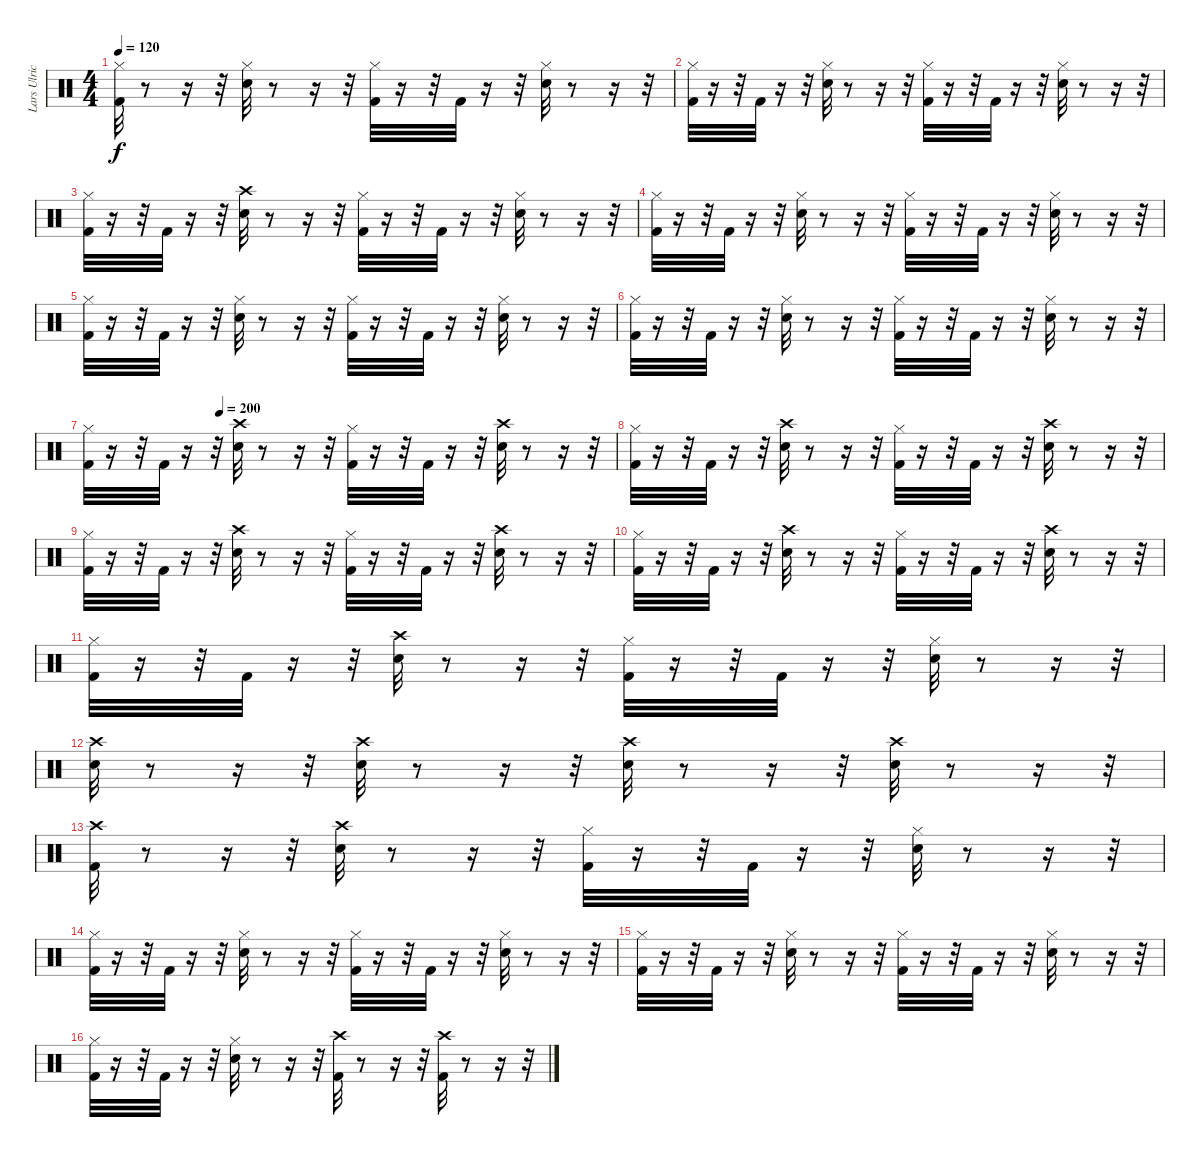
\track ("Lars Ulrich (Drums)" "Lars Ulric") {instrument percussion}
\staff {score}
\articulation defaults
\ts (4 4)
\tempo 120
\clef neutral
\ks c
("Kick (hit) 2" "Hi-Hat (closed)").32{dy f} r.8 r.16 r.32 ("Snare (hit) 2" "Hi-Hat (closed)").32 r.8 r.16 r.32 ("Kick (hit) 2" "Hi-Hat (closed)").32 r.16 r.32 "Kick (hit) 2".32 r.16 r.32 ("Hi-Hat (closed)" "Snare (hit) 2").32 r.8 r.16 r.32 |
("Kick (hit) 2" "Hi-Hat (closed)").32 r.16 r.32 "Kick (hit) 2".32 r.16 r.32 ("Snare (hit) 2" "Hi-Hat (closed)").32 r.8 r.16 r.32 ("Kick (hit) 2" "Hi-Hat (closed)").32 r.16 r.32 "Kick (hit) 2".32 r.16 r.32 ("Snare (hit) 2" "Hi-Hat (closed)").32 r.8 r.16 r.32 |
("Kick (hit) 2" "Hi-Hat (closed)").32 r.16 r.32 "Kick (hit) 2".32 r.16 r.32 ("Crash high (hit)" "Snare (hit) 2").32 r.8 r.16 r.32 ("Kick (hit) 2" "Hi-Hat (closed)").32 r.16 r.32 "Kick (hit) 2".32 r.16 r.32 ("Snare (hit) 2" "Hi-Hat (closed)").32 r.8 r.16 r.32 |
("Kick (hit) 2" "Hi-Hat (closed)").32 r.16 r.32 "Kick (hit) 2".32 r.16 r.32 ("Snare (hit) 2" "Hi-Hat (closed)").32 r.8 r.16 r.32 ("Kick (hit) 2" "Hi-Hat (closed)").32 r.16 r.32 "Kick (hit) 2".32 r.16 r.32 ("Snare (hit) 2" "Hi-Hat (closed)").32 r.8 r.16 r.32 |
("Kick (hit) 2" "Hi-Hat (closed)").32 r.16 r.32 "Kick (hit) 2".32 r.16 r.32 ("Snare (hit) 2" "Hi-Hat (closed)").32 r.8 r.16 r.32 ("Kick (hit) 2" "Hi-Hat (closed)").32 r.16 r.32 "Kick (hit) 2".32 r.16 r.32 ("Snare (hit) 2" "Hi-Hat (closed)").32 r.8 r.16 r.32 |
("Kick (hit) 2" "Hi-Hat (closed)").32 r.16 r.32 "Kick (hit) 2".32 r.16 r.32 ("Snare (hit) 2" "Hi-Hat (closed)").32 r.8 r.16 r.32 ("Kick (hit) 2" "Hi-Hat (closed)").32 r.16 r.32 "Kick (hit) 2".32 r.16 r.32 ("Snare (hit) 2" "Hi-Hat (closed)").32 r.8 r.16 r.32 |
\tempo (200 0.25)
("Kick (hit) 2" "Hi-Hat (closed)").32 r.16 r.32 "Kick (hit) 2".32 r.16 r.32 ("Crash high (hit)" "Snare (hit) 2").32 r.8 r.16 r.32 ("Kick (hit) 2" "Hi-Hat (closed)").32 r.16 r.32 "Kick (hit) 2".32 r.16 r.32 ("Crash high (hit)" "Snare (hit) 2").32 r.8 r.16 r.32 |
("Kick (hit) 2" "Hi-Hat (closed)").32 r.16 r.32 "Kick (hit) 2".32 r.16 r.32 ("Crash high (hit)" "Snare (hit) 2").32 r.8 r.16 r.32 ("Kick (hit) 2" "Hi-Hat (closed)").32 r.16 r.32 "Kick (hit) 2".32 r.16 r.32 ("Crash high (hit)" "Snare (hit) 2").32 r.8 r.16 r.32 |
("Kick (hit) 2" "Hi-Hat (closed)").32 r.16 r.32 "Kick (hit) 2".32 r.16 r.32 ("Crash high (hit)" "Snare (hit) 2").32 r.8 r.16 r.32 ("Kick (hit) 2" "Hi-Hat (closed)").32 r.16 r.32 "Kick (hit) 2".32 r.16 r.32 ("Crash high (hit)" "Snare (hit) 2").32 r.8 r.16 r.32 |
("Kick (hit) 2" "Hi-Hat (closed)").32 r.16 r.32 "Kick (hit) 2".32 r.16 r.32 ("Crash high (hit)" "Snare (hit) 2").32 r.8 r.16 r.32 ("Kick (hit) 2" "Hi-Hat (closed)").32 r.16 r.32 "Kick (hit) 2".32 r.16 r.32 ("Crash high (hit)" "Snare (hit) 2").32 r.8 r.16 r.32 |
("Kick (hit) 2" "Hi-Hat (closed)").32 r.16 r.32 "Kick (hit) 2".32 r.16 r.32 ("Crash high (hit)" "Snare (hit) 2").32 r.8 r.16 r.32 ("Kick (hit) 2" "Hi-Hat (closed)").32 r.16 r.32 "Kick (hit) 2".32 r.16 r.32 ("Hi-Hat (closed)" "Snare (hit) 2").32 r.8 r.16 r.32 |
("Crash high (hit)" "Snare (hit) 2").32 r.8 r.16 r.32 ("Crash high (hit)" "Snare (hit) 2").32 r.8 r.16 r.32 ("Crash high (hit)" "Snare (hit) 2").32 r.8 r.16 r.32 ("Crash high (hit)" "Snare (hit) 2").32 r.8 r.16 r.32 |
("Kick (hit) 2" "Crash high (hit)").32 r.8 r.16 r.32 ("Snare (hit) 2" "Crash high (hit)").32 r.8 r.16 r.32 ("Hi-Hat (closed)" "Kick (hit) 2").32 r.16 r.32 "Kick (hit) 2".32 r.16 r.32 ("Snare (hit) 2" "Hi-Hat (closed)").32 r.8 r.16 r.32 |
("Kick (hit) 2" "Hi-Hat (closed)").32 r.16 r.32 "Kick (hit) 2".32 r.16 r.32 ("Snare (hit) 2" "Hi-Hat (closed)").32 r.8 r.16 r.32 ("Kick (hit) 2" "Hi-Hat (closed)").32 r.16 r.32 "Kick (hit) 2".32 r.16 r.32 ("Snare (hit) 2" "Hi-Hat (closed)").32 r.8 r.16 r.32 |
("Kick (hit) 2" "Hi-Hat (closed)").32 r.16 r.32 "Kick (hit) 2".32 r.16 r.32 ("Snare (hit) 2" "Hi-Hat (closed)").32 r.8 r.16 r.32 ("Kick (hit) 2" "Hi-Hat (closed)").32 r.16 r.32 "Kick (hit) 2".32 r.16 r.32 ("Snare (hit) 2" "Hi-Hat (closed)").32 r.8 r.16 r.32 |
("Kick (hit) 2" "Hi-Hat (closed)").32 r.16 r.32 "Kick (hit) 2".32 r.16 r.32 ("Snare (hit) 2" "Hi-Hat (closed)").32 r.8 r.16 r.32 ("Crash high (hit)" "Kick (hit) 2").32 r.8 r.16 r.32 ("Crash high (hit)" "Kick (hit) 2").32 r.8 r.16 r.32
